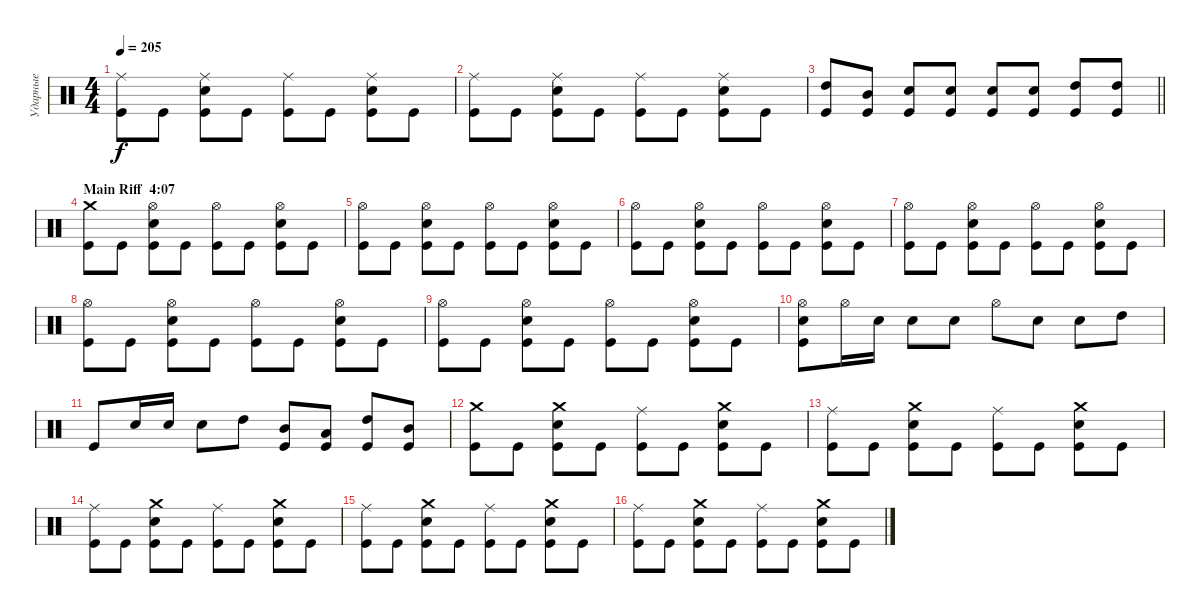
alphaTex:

\track ("Ударные" "Ударные") {instrument percussion}
\staff {score}
\articulation defaults
\ts (4 4)
\tempo 205
\clef neutral
\ks c
("Ride (middle)" "Kick (hit)").8{dy f} "Kick (hit)".8 ("Ride (middle)" "Snare (hit) 2" "Kick (hit)").8 "Kick (hit)".8 ("Ride (middle)" "Kick (hit)").8 "Kick (hit)".8 ("Ride (middle)" "Snare (hit) 2" "Kick (hit)").8 "Kick (hit)".8 |
("Ride (middle)" "Kick (hit)").8 "Kick (hit)".8 ("Ride (middle)" "Snare (hit) 2" "Kick (hit)").8 "Kick (hit)".8 ("Ride (middle)" "Kick (hit)").8 "Kick (hit)".8 ("Ride (middle)" "Snare (hit) 2" "Kick (hit)").8 "Kick (hit)".8 |
\barLineRight lightlight
("High Tom (hit)" "Kick (hit)").8 ("Mid Tom (hit)" "Kick (hit)").8 ("Snare (hit) 2" "Kick (hit)").8 ("Snare (hit) 2" "Kick (hit)").8 ("Snare (hit) 2" "Kick (hit)").8 ("Snare (hit) 2" "Kick (hit)").8 ("High Tom (hit)" "Kick (hit)").8 ("High Tom (hit)" "Kick (hit)").8 |
\section ("" "Main Riff  4:07")
("Crash medium (hit)" "Kick (hit)").8 "Kick (hit)".8 ("Hi-Hat (open)" "Snare (hit) 2" "Kick (hit)").8 "Kick (hit)".8 ("Hi-Hat (open)" "Kick (hit)").8 "Kick (hit)".8 ("Hi-Hat (open)" "Snare (hit) 2" "Kick (hit)").8 "Kick (hit)".8 |
("Hi-Hat (open)" "Kick (hit)").8 "Kick (hit)".8 ("Hi-Hat (open)" "Snare (hit) 2" "Kick (hit)").8 "Kick (hit)".8 ("Hi-Hat (open)" "Kick (hit)").8 "Kick (hit)".8 ("Hi-Hat (open)" "Snare (hit) 2" "Kick (hit)").8 "Kick (hit)".8 |
("Hi-Hat (open)" "Kick (hit)").8 "Kick (hit)".8 ("Hi-Hat (open)" "Snare (hit) 2" "Kick (hit)").8 "Kick (hit)".8 ("Hi-Hat (open)" "Kick (hit)").8 "Kick (hit)".8 ("Hi-Hat (open)" "Snare (hit) 2" "Kick (hit)").8 "Kick (hit)".8 |
("Hi-Hat (open)" "Kick (hit)").8 "Kick (hit)".8 ("Hi-Hat (open)" "Snare (hit) 2" "Kick (hit)").8 "Kick (hit)".8 ("Hi-Hat (open)" "Kick (hit)").8 "Kick (hit)".8 ("Hi-Hat (open)" "Snare (hit) 2" "Kick (hit)").8 "Kick (hit)".8 |
("Hi-Hat (open)" "Kick (hit)").8 "Kick (hit)".8 ("Hi-Hat (open)" "Snare (hit) 2" "Kick (hit)").8 "Kick (hit)".8 ("Hi-Hat (open)" "Kick (hit)").8 "Kick (hit)".8 ("Hi-Hat (open)" "Snare (hit) 2" "Kick (hit)").8 "Kick (hit)".8 |
("Hi-Hat (open)" "Kick (hit)").8 "Kick (hit)".8 ("Hi-Hat (open)" "Snare (hit) 2" "Kick (hit)").8 "Kick (hit)".8 ("Hi-Hat (open)" "Kick (hit)").8 "Kick (hit)".8 ("Hi-Hat (open)" "Snare (hit) 2" "Kick (hit)").8 "Kick (hit)".8 |
("Hi-Hat (open)" "Snare (hit) 2" "Kick (hit)").8 "Hi-Hat (open)".16 "Snare (hit) 2".16 "Snare (hit) 2".8 "Snare (hit) 2".8 "Hi-Hat (open)".8 "Snare (hit) 2".8 "Snare (hit) 2".8 "High Tom (hit)".8 |
"Kick (hit)".8 "Snare (hit) 2".16 "Snare (hit) 2".16 "Snare (hit) 2".8 "High Tom (hit)".8 ("Mid Tom (hit)" "Kick (hit)").8 ("Low Tom (hit)" "Kick (hit)").8 ("High Tom (hit)" "Kick (hit)").8 ("Mid Tom (hit)" "Kick (hit)").8 |
("Crash medium (hit)" "Kick (hit)").8 "Kick (hit)".8 ("Crash medium (hit)" "Snare (hit) 2" "Kick (hit)").8 "Kick (hit)".8 ("Ride (middle)" "Kick (hit)").8 "Kick (hit)".8 ("Crash medium (hit)" "Snare (hit) 2" "Kick (hit)").8 "Kick (hit)".8 |
("Ride (middle)" "Kick (hit)").8 "Kick (hit)".8 ("Crash medium (hit)" "Snare (hit) 2" "Kick (hit)").8 "Kick (hit)".8 ("Ride (middle)" "Kick (hit)").8 "Kick (hit)".8 ("Crash medium (hit)" "Snare (hit) 2" "Kick (hit)").8 "Kick (hit)".8 |
("Ride (middle)" "Kick (hit)").8 "Kick (hit)".8 ("Crash medium (hit)" "Snare (hit) 2" "Kick (hit)").8 "Kick (hit)".8 ("Ride (middle)" "Kick (hit)").8 "Kick (hit)".8 ("Crash medium (hit)" "Snare (hit) 2" "Kick (hit)").8 "Kick (hit)".8 |
("Ride (middle)" "Kick (hit)").8 "Kick (hit)".8 ("Crash medium (hit)" "Snare (hit) 2" "Kick (hit)").8 "Kick (hit)".8 ("Ride (middle)" "Kick (hit)").8 "Kick (hit)".8 ("Crash medium (hit)" "Snare (hit) 2" "Kick (hit)").8 "Kick (hit)".8 |
("Ride (middle)" "Kick (hit)").8 "Kick (hit)".8 ("Crash medium (hit)" "Snare (hit) 2" "Kick (hit)").8 "Kick (hit)".8 ("Ride (middle)" "Kick (hit)").8 "Kick (hit)".8 ("Crash medium (hit)" "Snare (hit) 2" "Kick (hit)").8 "Kick (hit)".8
